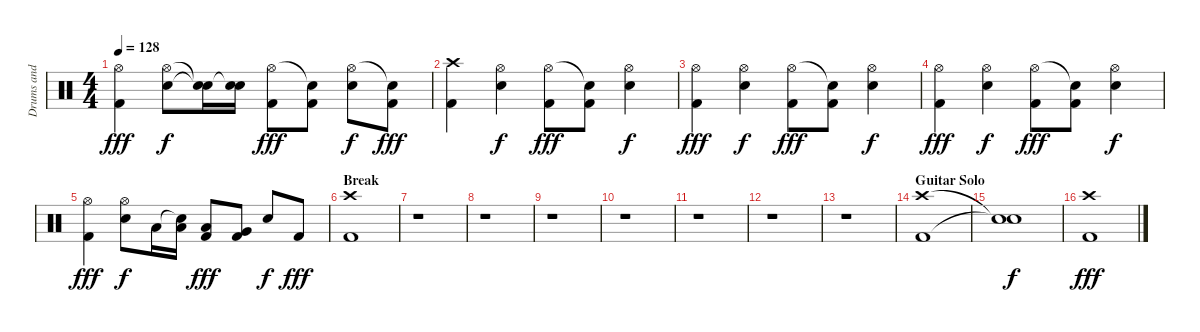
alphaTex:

\track ("Drums and Percussion" "Drums and ") {instrument percussion}
\staff {score}
\articulation defaults
\ts (4 4)
\tempo 128
\clef neutral
\ks c
("Hi-Hat (open)" "Kick (hit) 2").4{dy fff} ("Hi-Hat (open)" "Electric Snare (hit)").8{dy f} ("Snare (hit)"{t} "Snare (hit)"{t}).16 ("Snare (hit)"{t} "Electric Snare (hit)").16 ("Hi-Hat (open)" "Kick (hit) 2").8{dy fff} ("Snare (hit)"{t} "Kick (hit) 2").8 ("Hi-Hat (open)" "Electric Snare (hit)").8{dy f} ("Snare (hit)"{t} "Kick (hit) 2").8{dy fff} |
("Crash high (hit)" "Kick (hit) 2").4 ("Hi-Hat (open)" "Electric Snare (hit)").4{dy f} ("Hi-Hat (open)" "Kick (hit) 2").8{dy fff} ("Snare (hit)"{t} "Kick (hit) 2").8 ("Hi-Hat (open)" "Electric Snare (hit)").4{dy f} |
("Hi-Hat (open)" "Kick (hit) 2").4{dy fff} ("Hi-Hat (open)" "Electric Snare (hit)").4{dy f} ("Hi-Hat (open)" "Kick (hit) 2").8{dy fff} ("Snare (hit)"{t} "Kick (hit) 2").8 ("Hi-Hat (open)" "Electric Snare (hit)").4{dy f} |
("Hi-Hat (open)" "Kick (hit) 2").4{dy fff} ("Hi-Hat (open)" "Electric Snare (hit)").4{dy f} ("Hi-Hat (open)" "Kick (hit) 2").8{dy fff} ("Snare (hit)"{t} "Kick (hit) 2").8 ("Hi-Hat (open)" "Electric Snare (hit)").4{dy f} |
("Hi-Hat (open)" "Kick (hit) 2").4{dy fff} ("Hi-Hat (open)" "Electric Snare (hit)").8{dy f} "Low Tom (hit)".16 ("Snare (hit)"{t} "Low Tom (hit)").16 ("Low Tom (hit)" "Kick (hit) 2").8{dy fff} ("Very Low Tom (hit)" "Kick (hit) 2").8 "Electric Snare (hit)".8{dy f} "Kick (hit) 2".8{dy fff} |
\section ("" "Break")
("Crash high (hit)" "Kick (hit) 2").1 |
r.1 |
r.1 |
r.1 |
r.1 |
r.1 |
r.1 |
r.1 |
\section ("" "Guitar Solo")
("Crash high (hit)" "Kick (hit) 2").1 |
("Snare (hit)"{t} "Snare (hit)"{t}).1{dy f} |
("Crash high (hit)" "Kick (hit) 2").1{dy fff}
